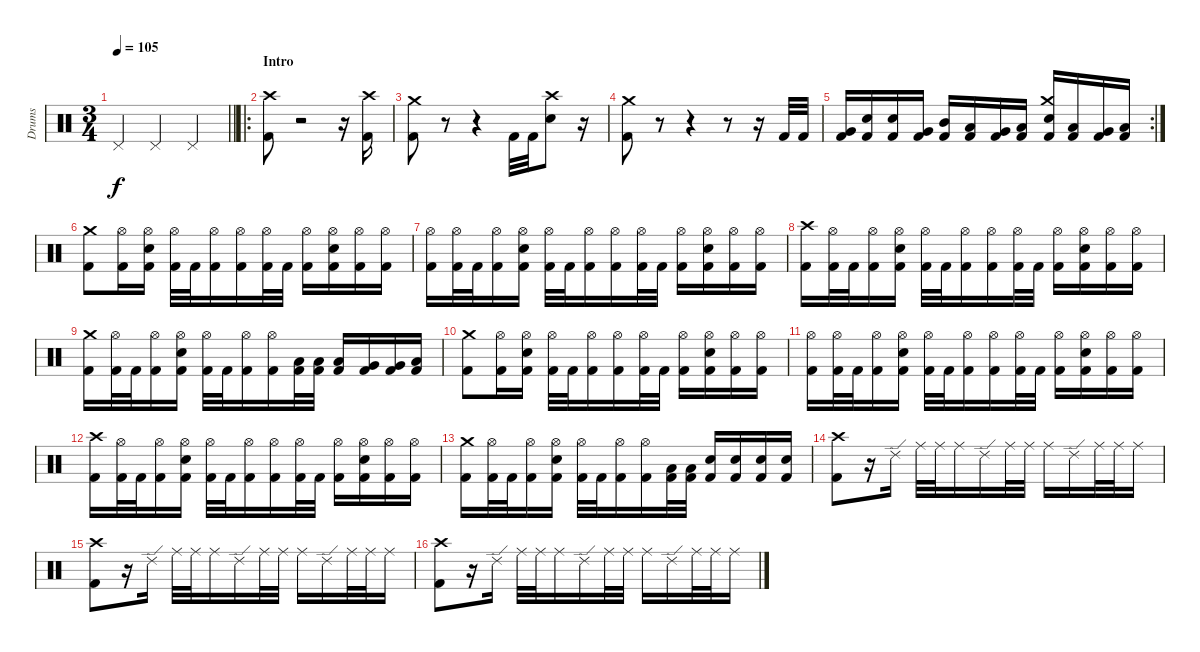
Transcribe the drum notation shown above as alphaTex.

\track ("Drums" "Drums") {instrument percussion}
\staff {score}
\articulation defaults
\ts (3 4)
\tempo 105
\clef neutral
\barLineRight lightlight
\ks c "Pedal Hi-Hat (hit)".4{dy f} "Pedal Hi-Hat (hit)".4 "Pedal Hi-Hat (hit)".4
|
\ro
\section ("" "Intro")
("Kick (hit) 2" "Crash high (hit)").8 r.2 r.16 ("Kick (hit) 2" "Crash high (hit)").16 |
("Kick (hit) 2" "Crash medium (hit)").8 r.8 r.4 "Kick (hit) 2".32 "Kick (hit) 2".32 ("Electric Snare (hit)" "Crash high (hit)").8 r.16 |
("Kick (hit) 2" "Crash medium (hit)").8 r.8 r.4 r.8 r.16 "Kick (hit) 2".32 "Kick (hit) 2".32 |
\rc 2
("Kick (hit) 2" "Very Low Tom (hit)").16 ("Kick (hit) 2" "Electric Snare (hit)").16 ("Kick (hit) 2" "Electric Snare (hit)").16 ("Kick (hit) 2" "Very Low Tom (hit)").16 ("Kick (hit) 2" "Mid Tom (hit)").16 ("Kick (hit) 2" "Low Tom (hit)").16 ("Kick (hit) 2" "Very Low Tom (hit)").16 ("Kick (hit) 2" "Low Tom (hit)").16 ("Kick (hit) 2" "Electric Snare (hit)" "Crash medium (hit)").16 ("Kick (hit) 2" "Low Tom (hit)").16 ("Kick (hit) 2" "Very Low Tom (hit)").16 ("Kick (hit) 2" "Low Floor Tom (hit)").16 |
("Kick (hit) 2" "Crash medium (hit)").8 ("Kick (hit) 2" "Hi-Hat (open)").16 ("Kick (hit) 2" "Electric Snare (hit)" "Hi-Hat (open)").16 ("Kick (hit) 2" "Hi-Hat (open)").32 "Kick (hit) 2".32 ("Kick (hit) 2" "Hi-Hat (open)").16 ("Kick (hit) 2" "Hi-Hat (open)").16 ("Kick (hit) 2" "Hi-Hat (open)").32 "Kick (hit) 2".32 ("Kick (hit) 2" "Hi-Hat (open)").16 ("Kick (hit) 2" "Electric Snare (hit)" "Hi-Hat (open)").16 ("Kick (hit) 2" "Hi-Hat (open)").16 ("Kick (hit) 2" "Hi-Hat (open)").16 |
("Kick (hit) 2" "Hi-Hat (open)").16 ("Kick (hit) 2" "Hi-Hat (open)").32 "Kick (hit) 2".32 ("Kick (hit) 2" "Hi-Hat (open)").16 ("Kick (hit) 2" "Electric Snare (hit)" "Hi-Hat (open)").16 ("Kick (hit) 2" "Hi-Hat (open)").32 "Kick (hit) 2".32 ("Kick (hit) 2" "Hi-Hat (open)").16 ("Kick (hit) 2" "Hi-Hat (open)").16 ("Kick (hit) 2" "Hi-Hat (open)").32 "Kick (hit) 2".32 ("Kick (hit) 2" "Hi-Hat (open)").16 ("Kick (hit) 2" "Electric Snare (hit)" "Hi-Hat (open)").16 ("Kick (hit) 2" "Hi-Hat (open)").16 ("Kick (hit) 2" "Hi-Hat (open)").16 |
("Kick (hit) 2" "Crash high (hit)").16 ("Kick (hit) 2" "Hi-Hat (open)").32 "Kick (hit) 2".32 ("Kick (hit) 2" "Hi-Hat (open)").16 ("Kick (hit) 2" "Electric Snare (hit)" "Hi-Hat (open)").16 ("Kick (hit) 2" "Hi-Hat (open)").32 "Kick (hit) 2".32 ("Kick (hit) 2" "Hi-Hat (open)").16 ("Kick (hit) 2" "Hi-Hat (open)").16 ("Kick (hit) 2" "Hi-Hat (open)").32 "Kick (hit) 2".32 ("Kick (hit) 2" "Hi-Hat (open)").16 ("Kick (hit) 2" "Electric Snare (hit)" "Hi-Hat (open)").16 ("Kick (hit) 2" "Hi-Hat (open)").16 ("Kick (hit) 2" "Hi-Hat (open)").16 |
("Kick (hit) 2" "Crash medium (hit)").16 ("Kick (hit) 2" "Hi-Hat (open)").32 "Kick (hit) 2".32 ("Kick (hit) 2" "Hi-Hat (open)").16 ("Kick (hit) 2" "Electric Snare (hit)" "Hi-Hat (open)").16 ("Kick (hit) 2" "Hi-Hat (open)").32 "Kick (hit) 2".32 ("Kick (hit) 2" "Hi-Hat (open)").16 ("Kick (hit) 2" "Hi-Hat (open)").16 ("Kick (hit) 2" "Low Tom (hit)").32 ("Kick (hit) 2" "Low Tom (hit)").32 ("Kick (hit) 2" "Low Tom (hit)").16 ("Kick (hit) 2" "Very Low Tom (hit)").16 ("Kick (hit) 2" "Very Low Tom (hit)").16 ("Kick (hit) 2" "Low Floor Tom (hit)").16 |
("Kick (hit) 2" "Crash medium (hit)").8 ("Kick (hit) 2" "Hi-Hat (open)").16 ("Kick (hit) 2" "Electric Snare (hit)" "Hi-Hat (open)").16 ("Kick (hit) 2" "Hi-Hat (open)").32 "Kick (hit) 2".32 ("Kick (hit) 2" "Hi-Hat (open)").16 ("Kick (hit) 2" "Hi-Hat (open)").16 ("Kick (hit) 2" "Hi-Hat (open)").32 "Kick (hit) 2".32 ("Kick (hit) 2" "Hi-Hat (open)").16 ("Kick (hit) 2" "Electric Snare (hit)" "Hi-Hat (open)").16 ("Kick (hit) 2" "Hi-Hat (open)").16 ("Kick (hit) 2" "Hi-Hat (open)").16 |
("Kick (hit) 2" "Hi-Hat (open)").16 ("Kick (hit) 2" "Hi-Hat (open)").32 "Kick (hit) 2".32 ("Kick (hit) 2" "Hi-Hat (open)").16 ("Kick (hit) 2" "Electric Snare (hit)" "Hi-Hat (open)").16 ("Kick (hit) 2" "Hi-Hat (open)").32 "Kick (hit) 2".32 ("Kick (hit) 2" "Hi-Hat (open)").16 ("Kick (hit) 2" "Hi-Hat (open)").16 ("Kick (hit) 2" "Hi-Hat (open)").32 "Kick (hit) 2".32 ("Kick (hit) 2" "Hi-Hat (open)").16 ("Kick (hit) 2" "Electric Snare (hit)" "Hi-Hat (open)").16 ("Kick (hit) 2" "Hi-Hat (open)").16 ("Kick (hit) 2" "Hi-Hat (open)").16 |
("Kick (hit) 2" "Crash high (hit)").16 ("Kick (hit) 2" "Hi-Hat (open)").32 "Kick (hit) 2".32 ("Kick (hit) 2" "Hi-Hat (open)").16 ("Kick (hit) 2" "Electric Snare (hit)" "Hi-Hat (open)").16 ("Kick (hit) 2" "Hi-Hat (open)").32 "Kick (hit) 2".32 ("Kick (hit) 2" "Hi-Hat (open)").16 ("Kick (hit) 2" "Hi-Hat (open)").16 ("Kick (hit) 2" "Hi-Hat (open)").32 "Kick (hit) 2".32 ("Kick (hit) 2" "Hi-Hat (open)").16 ("Kick (hit) 2" "Electric Snare (hit)" "Hi-Hat (open)").16 ("Kick (hit) 2" "Hi-Hat (open)").16 ("Kick (hit) 2" "Hi-Hat (open)").16 |
("Kick (hit) 2" "Crash medium (hit)").16 ("Kick (hit) 2" "Hi-Hat (open)").32 "Kick (hit) 2".32 ("Kick (hit) 2" "Hi-Hat (open)").16 ("Kick (hit) 2" "Electric Snare (hit)" "Hi-Hat (open)").16 ("Kick (hit) 2" "Hi-Hat (open)").32 "Kick (hit) 2".32 ("Kick (hit) 2" "Hi-Hat (open)").16 ("Kick (hit) 2" "Hi-Hat (open)").16 ("Kick (hit) 2" "Low Tom (hit)").32 ("Kick (hit) 2" "Low Tom (hit)").32 ("Kick (hit) 2" "Electric Snare (hit)").16 ("Kick (hit) 2" "Electric Snare (hit)").16 ("Kick (hit) 2" "Electric Snare (hit)").16 ("Kick (hit) 2" "Electric Snare (hit)").16 |
("Kick (hit) 2" "Crash high (hit)").8 r.16 "Ride (edge) 2".16 "Ride (middle)".32 "Ride (middle)".32 "Ride (middle)".16 "Ride (edge) 2".16 "Ride (middle)".32 "Ride (middle)".32 "Ride (middle)".16 "Ride (edge) 2".16 "Ride (middle)".32 "Ride (middle)".32 "Ride (middle)".16 |
("Kick (hit) 2" "Crash high (hit)").8 r.16 "Ride (edge) 2".16 "Ride (middle)".32 "Ride (middle)".32 "Ride (middle)".16 "Ride (edge) 2".16 "Ride (middle)".32 "Ride (middle)".32 "Ride (middle)".16 "Ride (edge) 2".16 "Ride (middle)".32 "Ride (middle)".32 "Ride (middle)".16 |
("Kick (hit) 2" "Crash high (hit)").8 r.16 "Ride (edge) 2".16 "Ride (middle)".32 "Ride (middle)".32 "Ride (middle)".16 "Ride (edge) 2".16 "Ride (middle)".32 "Ride (middle)".32 "Ride (middle)".16 "Ride (edge) 2".16 "Ride (middle)".32 "Ride (middle)".32 "Ride (middle)".16
